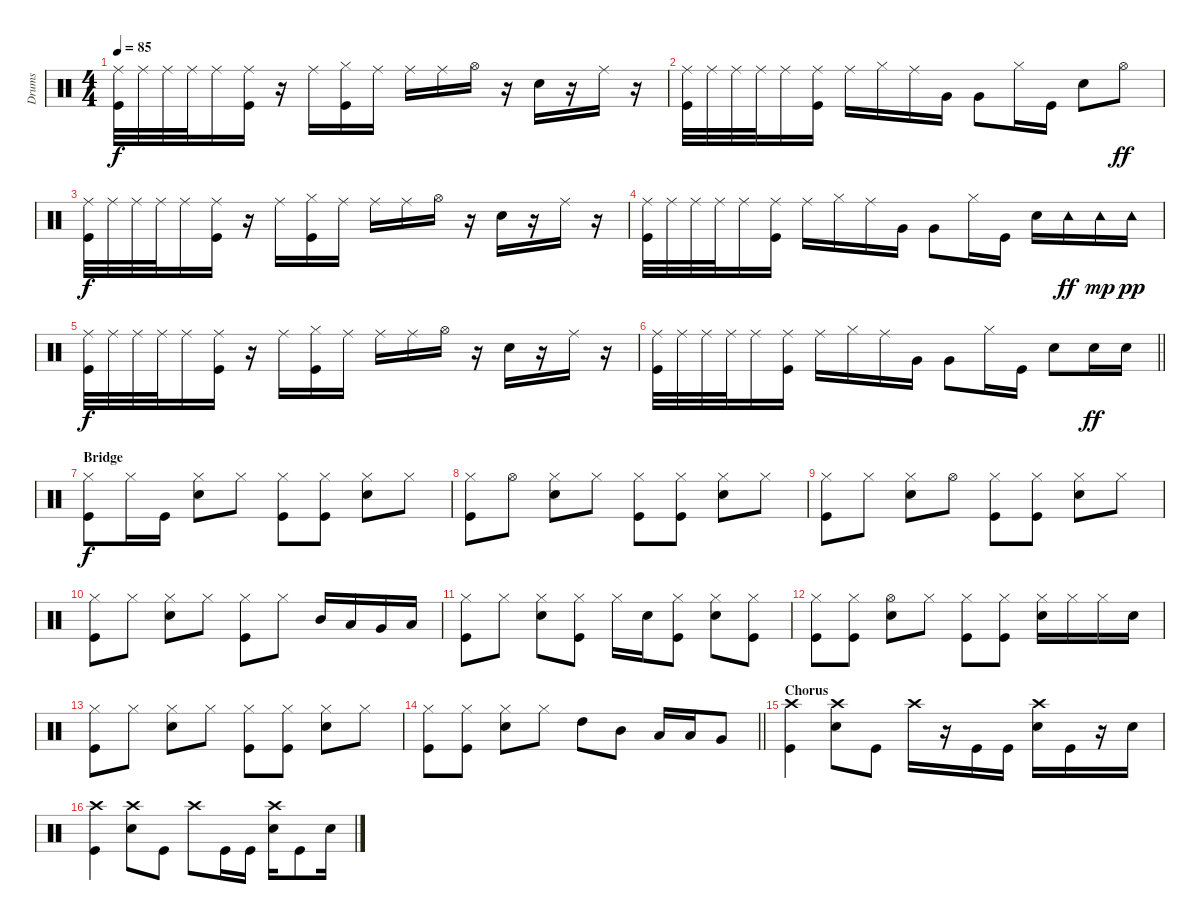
\track ("Drums" "Drums") {instrument percussion}
\staff {score}
\articulation defaults
\ts (4 4)
\tempo 85
\clef neutral
\ks c
("Ride (middle)" "Kick (hit)").32{dy f} "Ride (middle)".32 "Ride (middle)".32 "Ride (middle)".32 "Ride (middle)".16 ("Ride (middle)" "Kick (hit)").16 r.16 "Ride (middle)".16 ("Hi-Hat (closed)" "Kick (hit)").16 "Ride (middle)".16 "Ride (middle)".16 "Ride (middle)".16 "Hi-Hat (open)".16 r.16 "Snare (hit) 2".16 r.16 "Ride (middle)".16 r.16 |
("Ride (middle)" "Kick (hit)").32 "Ride (middle)".32 "Ride (middle)".32 "Ride (middle)".32 "Ride (middle)".16 ("Ride (middle)" "Kick (hit)").16 "Ride (middle)".16 "Hi-Hat (closed)".16 "Ride (middle)".16 "Very Low Tom (hit)".16 "Very Low Tom (hit)".8 "Hi-Hat (closed)".16 "Kick (hit)".16 "Snare (hit) 2".8 "Hi-Hat (open)".8{dy ff} |
("Ride (middle)" "Kick (hit)").32{dy f} "Ride (middle)".32 "Ride (middle)".32 "Ride (middle)".32 "Ride (middle)".16 ("Ride (middle)" "Kick (hit)").16 r.16 "Ride (middle)".16 ("Hi-Hat (closed)" "Kick (hit)").16 "Ride (middle)".16 "Ride (middle)".16 "Ride (middle)".16 "Hi-Hat (open)".16 r.16 "Snare (hit) 2".16 r.16 "Ride (middle)".16 r.16 |
("Ride (middle)" "Kick (hit)").32 "Ride (middle)".32 "Ride (middle)".32 "Ride (middle)".32 "Ride (middle)".16 ("Ride (middle)" "Kick (hit)").16 "Ride (middle)".16 "Hi-Hat (closed)".16 "Ride (middle)".16 "Very Low Tom (hit)".16 "Very Low Tom (hit)".8 "Hi-Hat (closed)".16 "Kick (hit)".16 "Snare (hit) 2".16 "Tambourine (hit)".16{dy ff} "Tambourine (hit)".16{dy mp} "Tambourine (hit)".16{dy pp} |
("Ride (middle)" "Kick (hit)").32{dy f} "Ride (middle)".32 "Ride (middle)".32 "Ride (middle)".32 "Ride (middle)".16 ("Ride (middle)" "Kick (hit)").16 r.16 "Ride (middle)".16 ("Hi-Hat (closed)" "Kick (hit)").16 "Ride (middle)".16 "Ride (middle)".16 "Ride (middle)".16 "Hi-Hat (open)".16 r.16 "Snare (hit) 2".16 r.16 "Ride (middle)".16 r.16 |
\barLineRight lightlight
("Ride (middle)" "Kick (hit)").32 "Ride (middle)".32 "Ride (middle)".32 "Ride (middle)".32 "Ride (middle)".16 ("Ride (middle)" "Kick (hit)").16 "Ride (middle)".16 "Hi-Hat (closed)".16 "Ride (middle)".16 "Very Low Tom (hit)".16 "Very Low Tom (hit)".8 "Hi-Hat (closed)".16 "Kick (hit)".16 "Snare (hit) 2".8 "Snare (hit) 2".16{dy ff} "Snare (hit) 2".16 |
\section ("" "Bridge")
("Hi-Hat (closed)" "Kick (hit)").8{dy f} "Hi-Hat (closed)".16 "Kick (hit)".16 ("Hi-Hat (closed)" "Snare (hit) 2").8 "Hi-Hat (closed)".8 ("Hi-Hat (closed)" "Kick (hit)").8 ("Hi-Hat (closed)" "Kick (hit)").8 ("Snare (hit) 2" "Hi-Hat (closed)").8 "Hi-Hat (closed)".8 |
("Hi-Hat (closed)" "Kick (hit)").8 "Hi-Hat (open)".8 ("Hi-Hat (closed)" "Snare (hit) 2").8 "Hi-Hat (closed)".8 ("Hi-Hat (closed)" "Kick (hit)").8 ("Hi-Hat (closed)" "Kick (hit)").8 ("Hi-Hat (closed)" "Snare (hit) 2").8 "Hi-Hat (closed)".8 |
("Hi-Hat (closed)" "Kick (hit)").8 "Hi-Hat (closed)".8 ("Snare (hit) 2" "Hi-Hat (closed)").8 "Hi-Hat (open)".8 ("Hi-Hat (closed)" "Kick (hit)").8 ("Hi-Hat (closed)" "Kick (hit)").8 ("Snare (hit) 2" "Hi-Hat (closed)").8 "Hi-Hat (closed)".8 |
("Hi-Hat (closed)" "Kick (hit)").8 "Hi-Hat (closed)".8 ("Snare (hit) 2" "Hi-Hat (closed)").8 "Hi-Hat (closed)".8 ("Hi-Hat (closed)" "Kick (hit)").8 "Hi-Hat (closed)".8 "Mid Tom (hit)".16 "Low Tom (hit)".16 "Very Low Tom (hit)".16 "Low Floor Tom (hit)".16 |
("Hi-Hat (closed)" "Kick (hit)").8 "Hi-Hat (closed)".8 ("Hi-Hat (closed)" "Snare (hit) 2").8 ("Hi-Hat (closed)" "Kick (hit)").8 "Hi-Hat (closed)".16 "Snare (hit) 2".16 ("Hi-Hat (closed)" "Kick (hit)").8 ("Hi-Hat (closed)" "Snare (hit) 2").8 ("Hi-Hat (closed)" "Kick (hit)").8 |
("Hi-Hat (closed)" "Kick (hit)").8 ("Hi-Hat (closed)" "Kick (hit)").8 ("Hi-Hat (open)" "Snare (hit) 2").8 "Hi-Hat (closed)".8 ("Hi-Hat (closed)" "Kick (hit)").8 ("Hi-Hat (closed)" "Kick (hit)").8 ("Hi-Hat (closed)" "Snare (hit) 2").16 "Hi-Hat (closed)".16 "Hi-Hat (closed)".16 "Snare (hit) 2".16 |
("Hi-Hat (closed)" "Kick (hit)").8 "Hi-Hat (closed)".8 ("Snare (hit) 2" "Hi-Hat (closed)").8 "Hi-Hat (closed)".8 ("Hi-Hat (closed)" "Kick (hit)").8 ("Hi-Hat (closed)" "Kick (hit)").8 ("Snare (hit) 2" "Hi-Hat (closed)").8 "Hi-Hat (closed)".8 |
\barLineRight lightlight
("Hi-Hat (closed)" "Kick (hit)").8 ("Hi-Hat (closed)" "Kick (hit)").8 ("Snare (hit) 2" "Hi-Hat (closed)").8 "Hi-Hat (closed)".8 "High Tom (hit)".8 "Mid Tom (hit)".8 "Low Tom (hit)".16 "Low Tom (hit)".16 "Very Low Tom (hit)".8 |
\section ("" "Chorus")
("Crash high (hit)" "Kick (hit)").4 ("Snare (hit) 2" "Crash high (hit)").8 "Kick (hit)".8 "Crash high (hit)".16 r.16 "Kick (hit)".16 "Kick (hit)".16 ("Crash high (hit)" "Snare (hit) 2").16 "Kick (hit)".16 r.16 "Snare (hit) 2".16 |
("Crash high (hit)" "Kick (hit)").4 ("Snare (hit) 2" "Crash high (hit)").8 "Kick (hit)".8 "Crash high (hit)".8 "Kick (hit)".16 "Kick (hit)".16 ("Crash high (hit)" "Snare (hit) 2").16 "Kick (hit)".8 "Snare (hit) 2".16
